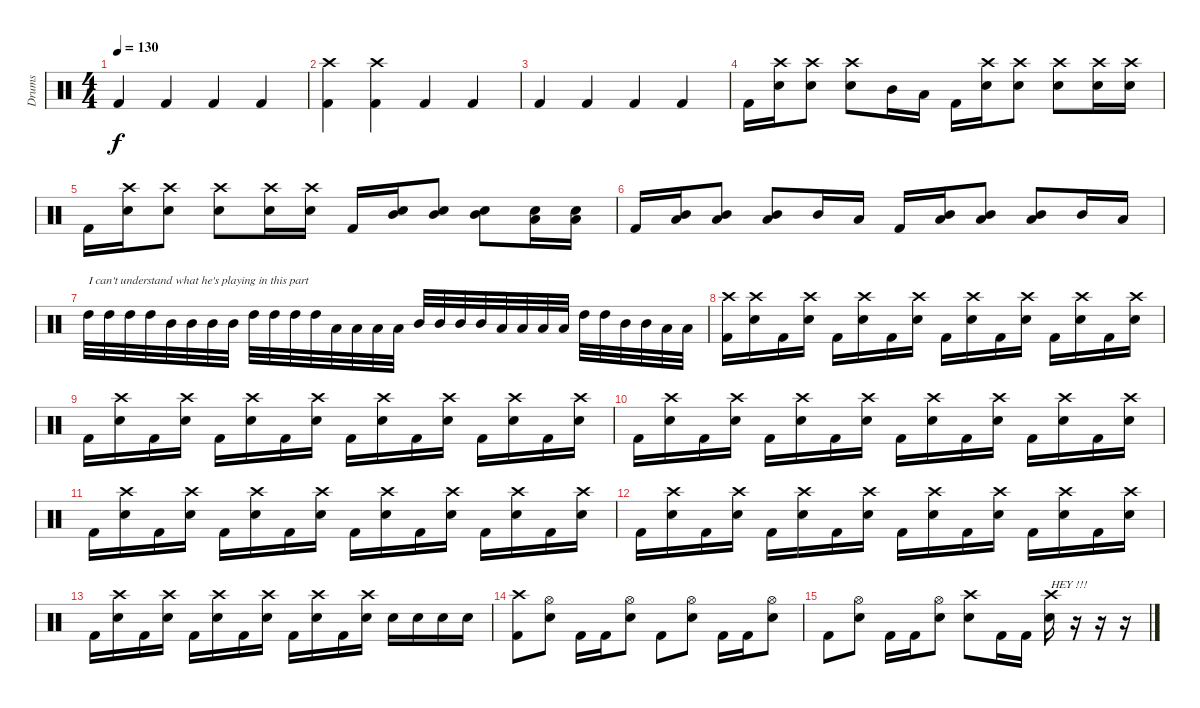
\track ("Drums" "Drums") {instrument percussion}
\staff {score}
\articulation defaults
\ts (4 4)
\tempo 130
\clef neutral
\ks c "Kick (hit) 2".4{dy f} "Kick (hit) 2".4 "Kick (hit) 2".4 "Kick (hit) 2".4
|
("Crash high (hit)" "Kick (hit) 2").4 ("Crash high (hit)" "Kick (hit) 2").4 "Kick (hit) 2".4 "Kick (hit) 2".4 |
"Kick (hit) 2".4 "Kick (hit) 2".4 "Kick (hit) 2".4 "Kick (hit) 2".4 |
"Kick (hit) 2".16 ("Crash high (hit)" "Electric Snare (hit)").16 ("Crash high (hit)" "Electric Snare (hit)").8 ("Crash high (hit)" "Electric Snare (hit)").8 "Mid Tom (hit)".16 "Low Tom (hit)".16 "Kick (hit) 2".16 ("Crash high (hit)" "Electric Snare (hit)").16 ("Crash high (hit)" "Electric Snare (hit)").8 ("Crash high (hit)" "Electric Snare (hit)").8 ("Crash high (hit)" "Electric Snare (hit)").16 ("Crash high (hit)" "Electric Snare (hit)").16 |
"Kick (hit) 2".16 ("Crash high (hit)" "Electric Snare (hit)").16 ("Crash high (hit)" "Electric Snare (hit)").8 ("Crash high (hit)" "Electric Snare (hit)").8 ("Crash high (hit)" "Electric Snare (hit)").16 ("Crash high (hit)" "Electric Snare (hit)").16 "Kick (hit) 2".16 ("Mid Tom (hit)" "Electric Snare (hit)").16 ("Mid Tom (hit)" "Electric Snare (hit)").8 ("Mid Tom (hit)" "Electric Snare (hit)").8 ("Low Tom (hit)" "Electric Snare (hit)").16 ("Low Tom (hit)" "Electric Snare (hit)").16 |
"Kick (hit) 2".16 ("Mid Tom (hit)" "Low Tom (hit)").16 ("Mid Tom (hit)" "Low Tom (hit)").8 ("Mid Tom (hit)" "Low Tom (hit)").8 "Mid Tom (hit)".16 "Low Tom (hit)".16 "Kick (hit) 2".16 ("Mid Tom (hit)" "Low Tom (hit)").16 ("Mid Tom (hit)" "Low Tom (hit)").8 ("Mid Tom (hit)" "Low Tom (hit)").8 "Mid Tom (hit)".16 "Low Tom (hit)".16 |
"High Tom (hit)".32{txt "I can't understand what he's playing in this part"} "High Tom (hit)".32 "High Tom (hit)".32 "High Tom (hit)".32 "Mid Tom (hit)".32 "Mid Tom (hit)".32 "Mid Tom (hit)".32 "Mid Tom (hit)".32 "High Tom (hit)".32 "High Tom (hit)".32 "High Tom (hit)".32 "High Tom (hit)".32 "Low Tom (hit)".32 "Low Tom (hit)".32 "Low Tom (hit)".32 "Low Tom (hit)".32 "Mid Tom (hit)".32 "Mid Tom (hit)".32 "Mid Tom (hit)".32 "Mid Tom (hit)".32 "Low Tom (hit)".32 "Low Tom (hit)".32 "Low Tom (hit)".32 "Low Tom (hit)".32 "High Tom (hit)".32 "High Tom (hit)".32 "Mid Tom (hit)".32 "Mid Tom (hit)".32 "Low Tom (hit)".32 "Low Tom (hit)".32 |
("Crash high (hit)" "Kick (hit) 2").16 ("Crash high (hit)" "Electric Snare (hit)").16 "Kick (hit) 2".16 ("Crash high (hit)" "Electric Snare (hit)").16 "Kick (hit) 2".16 ("Crash high (hit)" "Electric Snare (hit)").16 "Kick (hit) 2".16 ("Crash high (hit)" "Electric Snare (hit)").16 "Kick (hit) 2".16 ("Crash high (hit)" "Electric Snare (hit)").16 "Kick (hit) 2".16 ("Crash high (hit)" "Electric Snare (hit)").16 "Kick (hit) 2".16 ("Crash high (hit)" "Electric Snare (hit)").16 "Kick (hit) 2".16 ("Crash high (hit)" "Electric Snare (hit)").16 |
"Kick (hit) 2".16 ("Crash high (hit)" "Electric Snare (hit)").16 "Kick (hit) 2".16 ("Crash high (hit)" "Electric Snare (hit)").16 "Kick (hit) 2".16 ("Crash high (hit)" "Electric Snare (hit)").16 "Kick (hit) 2".16 ("Crash high (hit)" "Electric Snare (hit)").16 "Kick (hit) 2".16 ("Crash high (hit)" "Electric Snare (hit)").16 "Kick (hit) 2".16 ("Crash high (hit)" "Electric Snare (hit)").16 "Kick (hit) 2".16 ("Crash high (hit)" "Electric Snare (hit)").16 "Kick (hit) 2".16 ("Crash high (hit)" "Electric Snare (hit)").16 |
"Kick (hit) 2".16 ("Crash high (hit)" "Electric Snare (hit)").16 "Kick (hit) 2".16 ("Crash high (hit)" "Electric Snare (hit)").16 "Kick (hit) 2".16 ("Crash high (hit)" "Electric Snare (hit)").16 "Kick (hit) 2".16 ("Crash high (hit)" "Electric Snare (hit)").16 "Kick (hit) 2".16 ("Crash high (hit)" "Electric Snare (hit)").16 "Kick (hit) 2".16 ("Crash high (hit)" "Electric Snare (hit)").16 "Kick (hit) 2".16 ("Crash high (hit)" "Electric Snare (hit)").16 "Kick (hit) 2".16 ("Crash high (hit)" "Electric Snare (hit)").16 |
"Kick (hit) 2".16 ("Crash high (hit)" "Electric Snare (hit)").16 "Kick (hit) 2".16 ("Crash high (hit)" "Electric Snare (hit)").16 "Kick (hit) 2".16 ("Crash high (hit)" "Electric Snare (hit)").16 "Kick (hit) 2".16 ("Crash high (hit)" "Electric Snare (hit)").16 "Kick (hit) 2".16 ("Crash high (hit)" "Electric Snare (hit)").16 "Kick (hit) 2".16 ("Crash high (hit)" "Electric Snare (hit)").16 "Kick (hit) 2".16 ("Crash high (hit)" "Electric Snare (hit)").16 "Kick (hit) 2".16 ("Crash high (hit)" "Electric Snare (hit)").16 |
"Kick (hit) 2".16 ("Crash high (hit)" "Electric Snare (hit)").16 "Kick (hit) 2".16 ("Crash high (hit)" "Electric Snare (hit)").16 "Kick (hit) 2".16 ("Crash high (hit)" "Electric Snare (hit)").16 "Kick (hit) 2".16 ("Crash high (hit)" "Electric Snare (hit)").16 "Kick (hit) 2".16 ("Crash high (hit)" "Electric Snare (hit)").16 "Kick (hit) 2".16 ("Crash high (hit)" "Electric Snare (hit)").16 "Kick (hit) 2".16 ("Crash high (hit)" "Electric Snare (hit)").16 "Kick (hit) 2".16 ("Crash high (hit)" "Electric Snare (hit)").16 |
"Kick (hit) 2".16 ("Crash high (hit)" "Electric Snare (hit)").16 "Kick (hit) 2".16 ("Crash high (hit)" "Electric Snare (hit)").16 "Kick (hit) 2".16 ("Crash high (hit)" "Electric Snare (hit)").16 "Kick (hit) 2".16 ("Crash high (hit)" "Electric Snare (hit)").16 "Kick (hit) 2".16 ("Crash high (hit)" "Electric Snare (hit)").16 "Kick (hit) 2".16 ("Crash high (hit)" "Electric Snare (hit)").16 "Electric Snare (hit)".16 "Electric Snare (hit)".16 "Electric Snare (hit)".16 "Electric Snare (hit)".16 |
("Crash high (hit)" "Kick (hit) 2").8 ("Hi-Hat (open)" "Electric Snare (hit)").8 "Kick (hit) 2".16 "Kick (hit) 2".16 ("Hi-Hat (open)" "Electric Snare (hit)").8 "Kick (hit) 2".8 ("Hi-Hat (open)" "Electric Snare (hit)").8 "Kick (hit) 2".16 "Kick (hit) 2".16 ("Hi-Hat (open)" "Electric Snare (hit)").8 |
"Kick (hit) 2".8 ("Hi-Hat (open)" "Electric Snare (hit)").8 "Kick (hit) 2".16 "Kick (hit) 2".16 ("Hi-Hat (open)" "Electric Snare (hit)").8 ("Crash high (hit)" "Electric Snare (hit)").8 "Kick (hit) 2".16 "Kick (hit) 2".16 ("Crash high (hit)" "Electric Snare (hit)").16{txt "HEY !!!"} r.16 r.16 r.16
